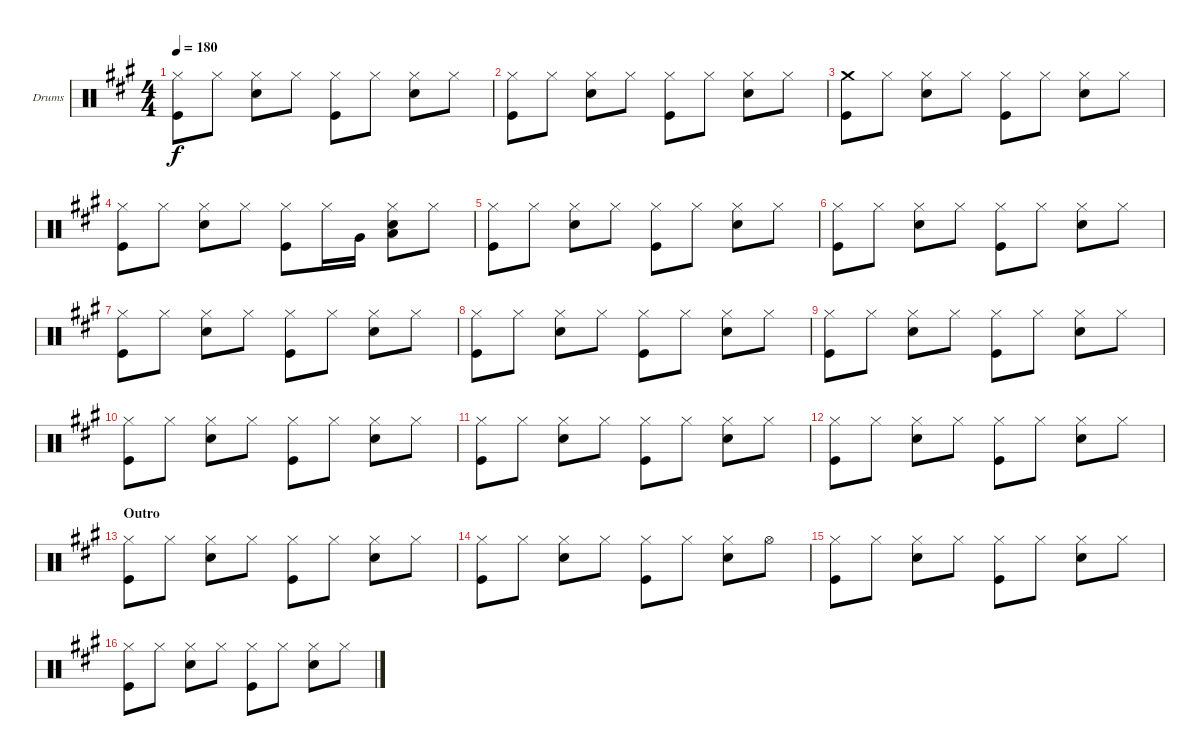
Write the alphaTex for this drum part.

\defaultSystemsLayout 4
\bracketExtendMode groupsimilarinstruments
\firstSystemTrackNameOrientation horizontal
\otherSystemsTrackNameOrientation horizontal
\track ("Drumkit" "Drums") {instrument percussion}
\staff {score}
\articulation defaults
\ts (4 4)
\tempo 180
\clef neutral
\ks f#minor
("Hi-Hat (closed)" "Kick (hit)").8{dy f} "Hi-Hat (closed)".8 ("Hi-Hat (closed)" "Snare (hit) 2").8 "Hi-Hat (closed)".8 ("Hi-Hat (closed)" "Kick (hit)").8 "Hi-Hat (closed)".8 ("Hi-Hat (closed)" "Snare (hit) 2").8 "Hi-Hat (closed)".8 |
("Hi-Hat (closed)" "Kick (hit)").8 "Hi-Hat (closed)".8 ("Hi-Hat (closed)" "Snare (hit) 2").8 "Hi-Hat (closed)".8 ("Hi-Hat (closed)" "Kick (hit)").8 "Hi-Hat (closed)".8 ("Hi-Hat (closed)" "Snare (hit) 2").8 "Hi-Hat (closed)".8 |
("Crash medium (hit)" "Kick (hit)").8 "Hi-Hat (closed)".8 ("Hi-Hat (closed)" "Snare (hit) 2").8 "Hi-Hat (closed)".8 ("Hi-Hat (closed)" "Kick (hit)").8 "Hi-Hat (closed)".8 ("Hi-Hat (closed)" "Snare (hit) 2").8 "Hi-Hat (closed)".8 |
("Hi-Hat (closed)" "Kick (hit)").8 "Hi-Hat (closed)".8 ("Hi-Hat (closed)" "Snare (hit) 2").8 "Hi-Hat (closed)".8 ("Hi-Hat (closed)" "Kick (hit)").8 "Hi-Hat (closed)".16 "Very Low Tom (hit)".16 ("Hi-Hat (closed)" "Low Tom (hit)" "Snare (hit) 2").8 "Hi-Hat (closed)".8 |
("Hi-Hat (closed)" "Kick (hit)").8 "Hi-Hat (closed)".8 ("Hi-Hat (closed)" "Snare (hit) 2").8 "Hi-Hat (closed)".8 ("Hi-Hat (closed)" "Kick (hit)").8 "Hi-Hat (closed)".8 ("Hi-Hat (closed)" "Snare (hit) 2").8 "Hi-Hat (closed)".8 |
("Hi-Hat (closed)" "Kick (hit)").8 "Hi-Hat (closed)".8 ("Hi-Hat (closed)" "Snare (hit) 2").8 "Hi-Hat (closed)".8 ("Hi-Hat (closed)" "Kick (hit)").8 "Hi-Hat (closed)".8 ("Hi-Hat (closed)" "Snare (hit) 2").8 "Hi-Hat (closed)".8 |
("Hi-Hat (closed)" "Kick (hit)").8 "Hi-Hat (closed)".8 ("Hi-Hat (closed)" "Snare (hit) 2").8 "Hi-Hat (closed)".8 ("Hi-Hat (closed)" "Kick (hit)").8 "Hi-Hat (closed)".8 ("Hi-Hat (closed)" "Snare (hit) 2").8 "Hi-Hat (closed)".8 |
("Hi-Hat (closed)" "Kick (hit)").8 "Hi-Hat (closed)".8 ("Hi-Hat (closed)" "Snare (hit) 2").8 "Hi-Hat (closed)".8 ("Hi-Hat (closed)" "Kick (hit)").8 "Hi-Hat (closed)".8 ("Hi-Hat (closed)" "Snare (hit) 2").8 "Hi-Hat (closed)".8 |
("Hi-Hat (closed)" "Kick (hit)").8 "Hi-Hat (closed)".8 ("Hi-Hat (closed)" "Snare (hit) 2").8 "Hi-Hat (closed)".8 ("Hi-Hat (closed)" "Kick (hit)").8 "Hi-Hat (closed)".8 ("Hi-Hat (closed)" "Snare (hit) 2").8 "Hi-Hat (closed)".8 |
("Hi-Hat (closed)" "Kick (hit)").8 "Hi-Hat (closed)".8 ("Hi-Hat (closed)" "Snare (hit) 2").8 "Hi-Hat (closed)".8 ("Hi-Hat (closed)" "Kick (hit)").8 "Hi-Hat (closed)".8 ("Hi-Hat (closed)" "Snare (hit) 2").8 "Hi-Hat (closed)".8 |
("Hi-Hat (closed)" "Kick (hit)").8 "Hi-Hat (closed)".8 ("Hi-Hat (closed)" "Snare (hit) 2").8 "Hi-Hat (closed)".8 ("Hi-Hat (closed)" "Kick (hit)").8 "Hi-Hat (closed)".8 ("Hi-Hat (closed)" "Snare (hit) 2").8 "Hi-Hat (closed)".8 |
("Hi-Hat (closed)" "Kick (hit)").8 "Hi-Hat (closed)".8 ("Hi-Hat (closed)" "Snare (hit) 2").8 "Hi-Hat (closed)".8 ("Hi-Hat (closed)" "Kick (hit)").8 "Hi-Hat (closed)".8 ("Hi-Hat (closed)" "Snare (hit) 2").8 "Hi-Hat (closed)".8 |
\section ("" "Outro")
("Hi-Hat (closed)" "Kick (hit)").8 "Hi-Hat (closed)".8 ("Hi-Hat (closed)" "Snare (hit) 2").8 "Hi-Hat (closed)".8 ("Hi-Hat (closed)" "Kick (hit)").8 "Hi-Hat (closed)".8 ("Hi-Hat (closed)" "Snare (hit) 2").8 "Hi-Hat (closed)".8 |
("Hi-Hat (closed)" "Kick (hit)").8 "Hi-Hat (closed)".8 ("Hi-Hat (closed)" "Snare (hit) 2").8 "Hi-Hat (closed)".8 ("Hi-Hat (closed)" "Kick (hit)").8 "Hi-Hat (closed)".8 ("Hi-Hat (closed)" "Snare (hit) 2").8 "Hi-Hat (open)".8 |
("Hi-Hat (closed)" "Kick (hit)").8 "Hi-Hat (closed)".8 ("Hi-Hat (closed)" "Snare (hit) 2").8 "Hi-Hat (closed)".8 ("Hi-Hat (closed)" "Kick (hit)").8 "Hi-Hat (closed)".8 ("Hi-Hat (closed)" "Snare (hit) 2").8 "Hi-Hat (closed)".8 |
("Hi-Hat (closed)" "Kick (hit)").8 "Hi-Hat (closed)".8 ("Hi-Hat (closed)" "Snare (hit) 2").8 "Hi-Hat (closed)".8 ("Hi-Hat (closed)" "Kick (hit)").8 "Hi-Hat (closed)".8 ("Hi-Hat (closed)" "Snare (hit) 2").8 "Hi-Hat (closed)".8
